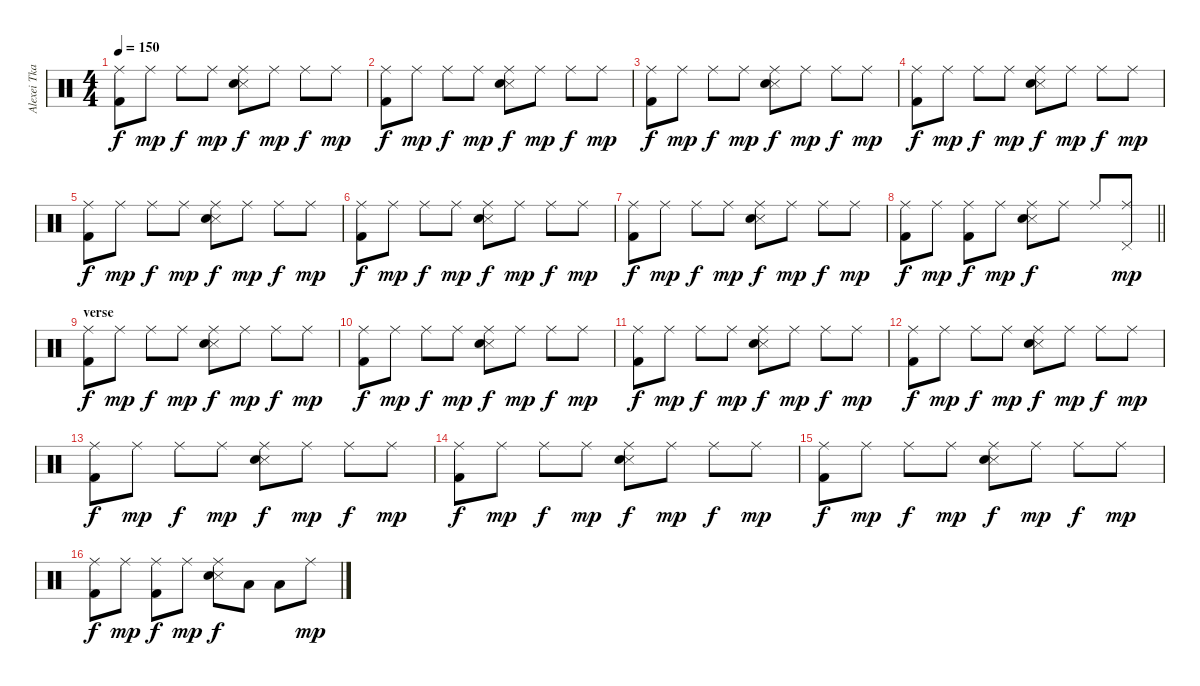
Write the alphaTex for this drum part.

\track ("Alexei Tkachevskiy " "Alexei Tka") {instrument percussion}
\staff {score}
\articulation defaults
\ts (4 4)
\tempo 150
\clef neutral
\ks c
("Ride (middle)" "Kick (hit) 2").8{dy f} "Ride (middle)".8{dy mp} "Ride (middle)".8{dy f} "Ride (middle)".8{dy mp} ("Ride (middle)" "Snare (side stick) 3" "Snare (hit) 2").8{dy f} "Ride (middle)".8{dy mp} "Ride (middle)".8{dy f} "Ride (middle)".8{dy mp} |
("Ride (middle)" "Kick (hit) 2").8{dy f} "Ride (middle)".8{dy mp} "Ride (middle)".8{dy f} "Ride (middle)".8{dy mp} ("Ride (middle)" "Snare (side stick) 3" "Snare (hit) 2").8{dy f} "Ride (middle)".8{dy mp} "Ride (middle)".8{dy f} "Ride (middle)".8{dy mp} |
("Ride (middle)" "Kick (hit) 2").8{dy f} "Ride (middle)".8{dy mp} "Ride (middle)".8{dy f} "Ride (middle)".8{dy mp} ("Ride (middle)" "Snare (side stick) 3" "Snare (hit) 2").8{dy f} "Ride (middle)".8{dy mp} "Ride (middle)".8{dy f} "Ride (middle)".8{dy mp} |
("Ride (middle)" "Kick (hit) 2").8{dy f} "Ride (middle)".8{dy mp} "Ride (middle)".8{dy f} "Ride (middle)".8{dy mp} ("Ride (middle)" "Snare (side stick) 3" "Snare (hit) 2").8{dy f} "Ride (middle)".8{dy mp} "Ride (middle)".8{dy f} "Ride (middle)".8{dy mp} |
("Ride (middle)" "Kick (hit) 2").8{dy f} "Ride (middle)".8{dy mp} "Ride (middle)".8{dy f} "Ride (middle)".8{dy mp} ("Ride (middle)" "Snare (side stick) 3" "Snare (hit) 2").8{dy f} "Ride (middle)".8{dy mp} "Ride (middle)".8{dy f} "Ride (middle)".8{dy mp} |
("Ride (middle)" "Kick (hit) 2").8{dy f} "Ride (middle)".8{dy mp} "Ride (middle)".8{dy f} "Ride (middle)".8{dy mp} ("Ride (middle)" "Snare (side stick) 3" "Snare (hit) 2").8{dy f} "Ride (middle)".8{dy mp} "Ride (middle)".8{dy f} "Ride (middle)".8{dy mp} |
("Ride (middle)" "Kick (hit) 2").8{dy f} "Ride (middle)".8{dy mp} "Ride (middle)".8{dy f} "Ride (middle)".8{dy mp} ("Ride (middle)" "Snare (side stick) 3" "Snare (hit) 2").8{dy f} "Ride (middle)".8{dy mp} "Ride (middle)".8{dy f} "Ride (middle)".8{dy mp} |
\barLineRight lightlight
("Ride (middle)" "Kick (hit) 2").8{dy f} "Ride (middle)".8{dy mp} ("Ride (middle)" "Kick (hit) 2").8{dy f} "Ride (middle)".8{dy mp} ("Ride (middle)" "Snare (side stick) 3" "Snare (hit) 2").8{dy f} "Ride (middle)".8 "Ride (middle)".8 ("Ride (middle)" "Pedal Hi-Hat (hit)").8{dy mp} |
\section ("" "verse")
("Ride (middle)" "Kick (hit) 2").8{dy f} "Ride (middle)".8{dy mp} "Ride (middle)".8{dy f} "Ride (middle)".8{dy mp} ("Ride (middle)" "Snare (side stick) 3" "Snare (hit) 2").8{dy f} "Ride (middle)".8{dy mp} "Ride (middle)".8{dy f} "Ride (middle)".8{dy mp} |
("Ride (middle)" "Kick (hit) 2").8{dy f} "Ride (middle)".8{dy mp} "Ride (middle)".8{dy f} "Ride (middle)".8{dy mp} ("Ride (middle)" "Snare (side stick) 3" "Snare (hit) 2").8{dy f} "Ride (middle)".8{dy mp} "Ride (middle)".8{dy f} "Ride (middle)".8{dy mp} |
("Ride (middle)" "Kick (hit) 2").8{dy f} "Ride (middle)".8{dy mp} "Ride (middle)".8{dy f} "Ride (middle)".8{dy mp} ("Ride (middle)" "Snare (side stick) 3" "Snare (hit) 2").8{dy f} "Ride (middle)".8{dy mp} "Ride (middle)".8{dy f} "Ride (middle)".8{dy mp} |
("Ride (middle)" "Kick (hit) 2").8{dy f} "Ride (middle)".8{dy mp} "Ride (middle)".8{dy f} "Ride (middle)".8{dy mp} ("Ride (middle)" "Snare (side stick) 3" "Snare (hit) 2").8{dy f} "Ride (middle)".8{dy mp} "Ride (middle)".8{dy f} "Ride (middle)".8{dy mp} |
("Ride (middle)" "Kick (hit) 2").8{dy f} "Ride (middle)".8{dy mp} "Ride (middle)".8{dy f} "Ride (middle)".8{dy mp} ("Ride (middle)" "Snare (side stick) 3" "Snare (hit) 2").8{dy f} "Ride (middle)".8{dy mp} "Ride (middle)".8{dy f} "Ride (middle)".8{dy mp} |
("Ride (middle)" "Kick (hit) 2").8{dy f} "Ride (middle)".8{dy mp} "Ride (middle)".8{dy f} "Ride (middle)".8{dy mp} ("Ride (middle)" "Snare (side stick) 3" "Snare (hit) 2").8{dy f} "Ride (middle)".8{dy mp} "Ride (middle)".8{dy f} "Ride (middle)".8{dy mp} |
("Ride (middle)" "Kick (hit) 2").8{dy f} "Ride (middle)".8{dy mp} "Ride (middle)".8{dy f} "Ride (middle)".8{dy mp} ("Ride (middle)" "Snare (side stick) 3" "Snare (hit) 2").8{dy f} "Ride (middle)".8{dy mp} "Ride (middle)".8{dy f} "Ride (middle)".8{dy mp} |
("Ride (middle)" "Kick (hit) 2").8{dy f} "Ride (middle)".8{dy mp} ("Ride (middle)" "Kick (hit) 2").8{dy f} "Ride (middle)".8{dy mp} ("Ride (middle)" "Snare (side stick) 3" "Snare (hit) 2").8{dy f} "Low Tom (hit)".8 "Low Tom (hit)".8 "Ride (middle)".8{dy mp}
